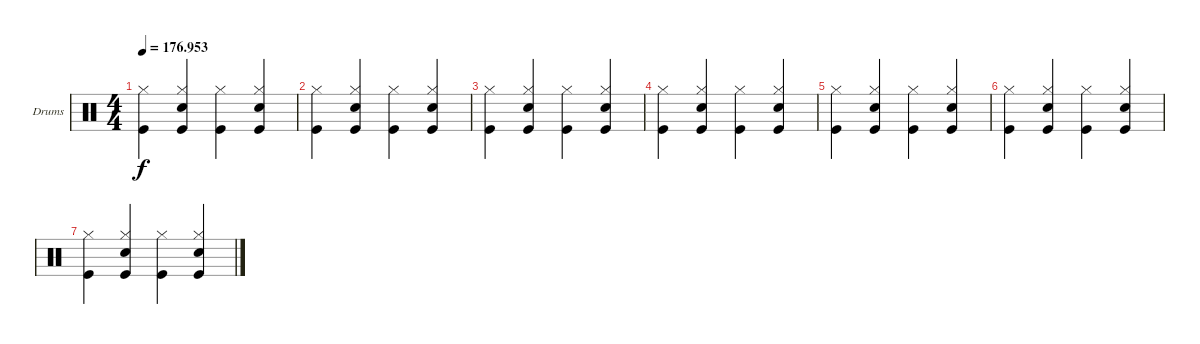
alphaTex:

\defaultSystemsLayout 4
\bracketExtendMode groupsimilarinstruments
\firstSystemTrackNameOrientation horizontal
\otherSystemsTrackNameOrientation horizontal
\track ("Flake" "Drums") {instrument percussion}
\staff {score}
\articulation defaults
\ts (4 4)
\tempo
176.953
\accidentals auto
\clef neutral
\ottava regular
\simile none
\scale
0.474178
\ks c
("Kick (hit)" "Hi-Hat (closed)").4{dy f} ("Snare (hit) 2" "Kick (hit)" "Hi-Hat (closed)").4 ("Kick (hit)" "Hi-Hat (closed)").4 ("Snare (hit) 2" "Kick (hit)" "Hi-Hat (closed)").4 |
\scale
0.262911 ("Kick (hit)" "Hi-Hat (closed)").4 ("Snare (hit) 2" "Kick (hit)" "Hi-Hat (closed)").4 ("Kick (hit)" "Hi-Hat (closed)").4 ("Snare (hit) 2" "Kick (hit)" "Hi-Hat (closed)").4 |
\scale
0.262911 ("Kick (hit)" "Hi-Hat (closed)").4 ("Snare (hit) 2" "Kick (hit)" "Hi-Hat (closed)").4 ("Kick (hit)" "Hi-Hat (closed)").4 ("Snare (hit) 2" "Kick (hit)" "Hi-Hat (closed)").4 |
\scale
0.333333 ("Kick (hit)" "Hi-Hat (closed)").4 ("Snare (hit) 2" "Kick (hit)" "Hi-Hat (closed)").4 ("Kick (hit)" "Hi-Hat (closed)").4 ("Snare (hit) 2" "Kick (hit)" "Hi-Hat (closed)").4 |
\scale
0.333333 ("Kick (hit)" "Hi-Hat (closed)").4 ("Snare (hit) 2" "Kick (hit)" "Hi-Hat (closed)").4 ("Kick (hit)" "Hi-Hat (closed)").4 ("Snare (hit) 2" "Kick (hit)" "Hi-Hat (closed)").4 |
\scale
0.333333 ("Kick (hit)" "Hi-Hat (closed)").4 ("Snare (hit) 2" "Kick (hit)" "Hi-Hat (closed)").4 ("Kick (hit)" "Hi-Hat (closed)").4 ("Snare (hit) 2" "Kick (hit)" "Hi-Hat (closed)").4 |
\scale
0.333333 ("Kick (hit)" "Hi-Hat (closed)").4 ("Snare (hit) 2" "Kick (hit)" "Hi-Hat (closed)").4 ("Kick (hit)" "Hi-Hat (closed)").4 ("Snare (hit) 2" "Kick (hit)" "Hi-Hat (closed)").4 |
\scale
0.333333 |
\scale
0.333333 |
\scale
0.333333 |
\scale
0.333333 |
\scale
0.333333 |
\scale
0.333333 |
\scale
0.333333 |
\scale
0.333333
